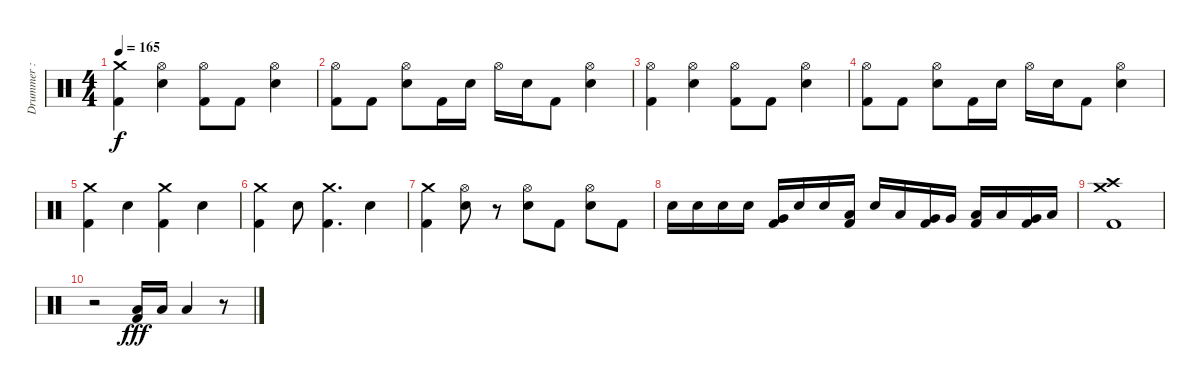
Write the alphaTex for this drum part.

\track ("Drummer : Tainaka Ritsu - Chan" "Drummer : ") {instrument percussion}
\staff {score}
\articulation defaults
\ts (4 4)
\tempo 165
\clef neutral
\ks c
("Crash medium (hit)" "Kick (hit) 2").4{dy f} ("Hi-Hat (open)" "Electric Snare (hit)").4 ("Hi-Hat (open)" "Kick (hit) 2").8 "Kick (hit) 2".8 ("Hi-Hat (open)" "Electric Snare (hit)").4 |
("Hi-Hat (open)" "Kick (hit) 2").8 "Kick (hit) 2".8 ("Hi-Hat (open)" "Electric Snare (hit)").8 "Kick (hit) 2".16 "Electric Snare (hit)".16 "Hi-Hat (open)".16 "Electric Snare (hit)".16 "Kick (hit) 2".8 ("Hi-Hat (open)" "Electric Snare (hit)").4 |
("Hi-Hat (open)" "Kick (hit) 2").4 ("Hi-Hat (open)" "Electric Snare (hit)").4 ("Hi-Hat (open)" "Kick (hit) 2").8 "Kick (hit) 2".8 ("Hi-Hat (open)" "Electric Snare (hit)").4 |
("Hi-Hat (open)" "Kick (hit) 2").8 "Kick (hit) 2".8 ("Hi-Hat (open)" "Electric Snare (hit)").8 "Kick (hit) 2".16 "Electric Snare (hit)".16 "Hi-Hat (open)".16 "Electric Snare (hit)".16 "Kick (hit) 2".8 ("Hi-Hat (open)" "Electric Snare (hit)").4 |
("Crash medium (hit)" "Kick (hit) 2").4 "Electric Snare (hit)".4 ("Crash medium (hit)" "Kick (hit) 2").4 "Electric Snare (hit)".4 |
("Crash medium (hit)" "Kick (hit) 2").4 "Electric Snare (hit)".8 ("Crash medium (hit)" "Kick (hit) 2").4{d} "Electric Snare (hit)".4 |
("Crash medium (hit)" "Kick (hit) 2").4 ("Hi-Hat (open)" "Electric Snare (hit)").8 r.8 ("Hi-Hat (open)" "Electric Snare (hit)").8 "Kick (hit) 2".8 ("Hi-Hat (open)" "Electric Snare (hit)").8 "Kick (hit) 2".8 |
"Electric Snare (hit)".16 "Electric Snare (hit)".16 "Electric Snare (hit)".16 "Electric Snare (hit)".16 ("Very Low Tom (hit)" "Kick (hit) 2").16 "Electric Snare (hit)".16 "Electric Snare (hit)".16 ("Low Floor Tom (hit)" "Kick (hit) 2").16 "Electric Snare (hit)".16 "Low Tom (hit)".16 ("Very Low Tom (hit)" "Kick (hit) 2").16 "Very Low Tom (hit)".16 ("Low Tom (hit)" "Kick (hit) 2").16 "Low Floor Tom (hit)".16 ("Very Low Tom (hit)" "Kick (hit) 2").16 "Low Floor Tom (hit)".16 |
("Crash high (hit)" "Crash medium (hit)" "Kick (hit) 2").1 |
r.2 ("Low Floor Tom (hit)" "Kick (hit) 2").16{dy fff} "Low Floor Tom (hit)".16 "Low Floor Tom (hit)".4 r.8
